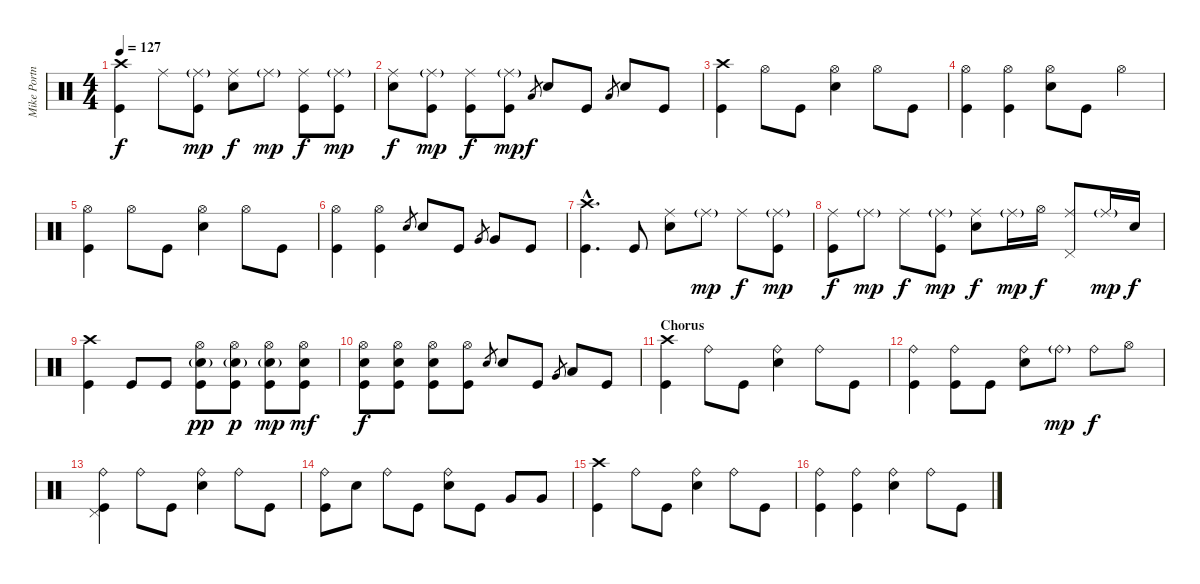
\track ("Mike Portnoy" "Mike Portn") {instrument percussion}
\staff {score}
\articulation defaults
\ts (4 4)
\tempo 127
\clef neutral
\ks c
("Crash high (hit)" "Kick (hit)").4{dy f} "Ride (middle)".8 ("Ride (middle)"{g} "Kick (hit)").8{dy mp} ("Ride (middle)" "Electric Snare (hit)").8{dy f} "Ride (middle)"{g}.8{dy mp} ("Ride (middle)" "Kick (hit)").8{dy f} ("Ride (middle)"{g} "Kick (hit)").8{dy mp} |
("Ride (middle)" "Electric Snare (hit)").8{dy f} ("Ride (middle)"{g} "Kick (hit)").8{dy mp} ("Ride (middle)" "Kick (hit)").8{dy f} ("Ride (middle)"{g} "Kick (hit)").8{dy mp} "Low Floor Tom (hit)".8{gr dy f} "Electric Snare (hit)".8 "Kick (hit)".8 "Low Floor Tom (hit)".8{gr} "Electric Snare (hit)".8 "Kick (hit)".8 |
("Crash high (hit)" "Kick (hit)").4 "Hi-Hat (open)".8 "Kick (hit)".8 ("Hi-Hat (open)" "Electric Snare (hit)").4 "Hi-Hat (open)".8 "Kick (hit)".8 |
("Hi-Hat (open)" "Kick (hit)").4 ("Hi-Hat (open)" "Kick (hit)").4 ("Hi-Hat (open)" "Electric Snare (hit)").8 "Kick (hit)".8 "Hi-Hat (open)".4 |
("Hi-Hat (open)" "Kick (hit)").4 "Hi-Hat (open)".8 "Kick (hit)".8 ("Hi-Hat (open)" "Electric Snare (hit)").4 "Hi-Hat (open)".8 "Kick (hit)".8 |
("Hi-Hat (open)" "Kick (hit)").4 ("Hi-Hat (open)" "Kick (hit)").4 "Electric Snare (hit)".8{gr} "Electric Snare (hit)".8 "Kick (hit)".8 "Very Low Tom (hit)".8{gr} "Very Low Tom (hit)".8 "Kick (hit)".8 |
("Crash high (hit)"{hac} "Kick (hit)"{hac}).4{d} "Kick (hit)".8 ("Ride (middle)" "Electric Snare (hit)").8 "Ride (middle)"{g}.8{dy mp} "Ride (middle)".8{dy f} ("Ride (middle)"{g} "Kick (hit)").8{dy mp} |
("Ride (middle)" "Kick (hit)").8{dy f} "Ride (middle)"{g}.8{dy mp} "Ride (middle)".8{dy f} ("Ride (middle)"{g} "Kick (hit)").8{dy mp} ("Ride (middle)" "Electric Snare (hit)").8{dy f} "Ride (middle)"{g}.16{dy mp} "Hi-Hat (open)".16{dy f} ("Ride (middle)" "Pedal Hi-Hat (hit)").8 "Ride (middle)"{g}.16{dy mp} "Electric Snare (hit)".16{dy f} |
("Crash high (hit)" "Kick (hit)").4 "Kick (hit)".8 "Kick (hit)".8 ("Hi-Hat (open)" "Electric Snare (hit)"{g} "Kick (hit)").8{dy pp} ("Hi-Hat (open)" "Electric Snare (hit)"{g} "Kick (hit)").8{dy p} ("Hi-Hat (open)" "Electric Snare (hit)"{g} "Kick (hit)").8{dy mp} ("Hi-Hat (open)" "Electric Snare (hit)" "Kick (hit)").8{dy mf} |
("Hi-Hat (open)" "Electric Snare (hit)" "Kick (hit)").8{dy f} ("Hi-Hat (open)" "Electric Snare (hit)" "Kick (hit)").8 ("Hi-Hat (open)" "Electric Snare (hit)" "Kick (hit)").8 ("Hi-Hat (open)" "Kick (hit)").8 "Electric Snare (hit)".8{gr} "Electric Snare (hit)".8 "Kick (hit)".8 "Very Low Tom (hit)".8{gr} "Low Tom (hit)".8 "Kick (hit)".8 |
\section ("" "Chorus")
("Crash high (hit)" "Kick (hit)").4 "Ride (bell)".8 "Kick (hit)".8 ("Ride (bell)" "Electric Snare (hit)").4 "Ride (bell)".8 "Kick (hit)".8 |
("Ride (bell)" "Kick (hit)").4 ("Ride (bell)" "Kick (hit)").8 "Kick (hit)".8 ("Ride (bell)" "Electric Snare (hit)").8 "Ride (bell)"{g}.8{dy mp} "Ride (bell)".8{dy f} "Hi-Hat (open)".8 |
("Ride (bell)" "Pedal Hi-Hat (hit)" "Kick (hit)").4 "Ride (bell)".8 "Kick (hit)".8 ("Ride (bell)" "Electric Snare (hit)").4 "Ride (bell)".8 "Kick (hit)".8 |
("Ride (bell)" "Kick (hit)").8 "Electric Snare (hit)".8 "Ride (bell)".8 "Kick (hit)".8 ("Ride (bell)" "Electric Snare (hit)").8 "Kick (hit)".8 "Very Low Tom (hit)".8 "Very Low Tom (hit)".8 |
("Crash high (hit)" "Kick (hit)").4 "Ride (bell)".8 "Kick (hit)".8 ("Ride (bell)" "Electric Snare (hit)").4 "Ride (bell)".8 "Kick (hit)".8 |
("Ride (bell)" "Kick (hit)").4 ("Ride (bell)" "Kick (hit)").4 ("Ride (bell)" "Electric Snare (hit)").4 "Ride (bell)".8 "Kick (hit)".8
